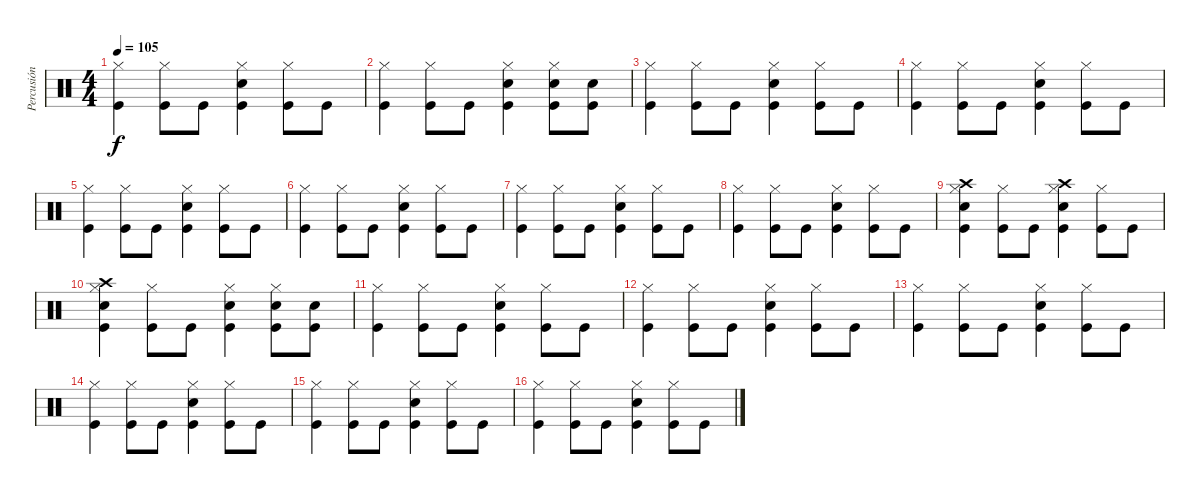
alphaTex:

\track ("Percusión" "Percusión") {instrument percussion}
\staff {score}
\articulation defaults
\ts (4 4)
\tempo 105
\clef neutral
\ks c
("Hi-Hat (closed)" "Kick (hit)").4{dy f} ("Hi-Hat (closed)" "Kick (hit)").8 "Kick (hit)".8 ("Hi-Hat (closed)" "Snare (hit) 2" "Kick (hit)").4 ("Hi-Hat (closed)" "Kick (hit)").8 "Kick (hit)".8 |
("Hi-Hat (closed)" "Kick (hit)").4 ("Hi-Hat (closed)" "Kick (hit)").8 "Kick (hit)".8 ("Hi-Hat (closed)" "Snare (hit) 2" "Kick (hit)").4 ("Hi-Hat (closed)" "Snare (hit) 2" "Kick (hit)").8 ("Snare (hit) 2" "Kick (hit)").8 |
("Hi-Hat (closed)" "Kick (hit)").4 ("Hi-Hat (closed)" "Kick (hit)").8 "Kick (hit)".8 ("Hi-Hat (closed)" "Snare (hit) 2" "Kick (hit)").4 ("Hi-Hat (closed)" "Kick (hit)").8 "Kick (hit)".8 |
("Hi-Hat (closed)" "Kick (hit)").4 ("Hi-Hat (closed)" "Kick (hit)").8 "Kick (hit)".8 ("Hi-Hat (closed)" "Snare (hit) 2" "Kick (hit)").4 ("Hi-Hat (closed)" "Kick (hit)").8 "Kick (hit)".8 |
("Hi-Hat (closed)" "Kick (hit)").4 ("Hi-Hat (closed)" "Kick (hit)").8 "Kick (hit)".8 ("Hi-Hat (closed)" "Snare (hit) 2" "Kick (hit)").4 ("Hi-Hat (closed)" "Kick (hit)").8 "Kick (hit)".8 |
("Hi-Hat (closed)" "Kick (hit)").4 ("Hi-Hat (closed)" "Kick (hit)").8 "Kick (hit)".8 ("Hi-Hat (closed)" "Snare (hit) 2" "Kick (hit)").4 ("Hi-Hat (closed)" "Kick (hit)").8 "Kick (hit)".8 |
("Hi-Hat (closed)" "Kick (hit)").4 ("Hi-Hat (closed)" "Kick (hit)").8 "Kick (hit)".8 ("Hi-Hat (closed)" "Snare (hit) 2" "Kick (hit)").4 ("Hi-Hat (closed)" "Kick (hit)").8 "Kick (hit)".8 |
("Hi-Hat (closed)" "Kick (hit)").4 ("Hi-Hat (closed)" "Kick (hit)").8 "Kick (hit)".8 ("Hi-Hat (closed)" "Snare (hit) 2" "Kick (hit)").4 ("Hi-Hat (closed)" "Kick (hit)").8 "Kick (hit)".8 |
("Hi-Hat (closed)" "Crash high (hit)" "Snare (hit) 2" "Kick (hit)").4 ("Hi-Hat (closed)" "Kick (hit)").8 "Kick (hit)".8 ("Hi-Hat (closed)" "Crash high (hit)" "Snare (hit) 2" "Kick (hit)").4 ("Hi-Hat (closed)" "Kick (hit)").8 "Kick (hit)".8 |
("Hi-Hat (closed)" "Crash high (hit)" "Snare (hit) 2" "Kick (hit)").4 ("Hi-Hat (closed)" "Kick (hit)").8 "Kick (hit)".8 ("Hi-Hat (closed)" "Snare (hit) 2" "Kick (hit)").4 ("Hi-Hat (closed)" "Snare (hit) 2" "Kick (hit)").8 ("Snare (hit) 2" "Kick (hit)").8 |
("Hi-Hat (closed)" "Kick (hit)").4 ("Hi-Hat (closed)" "Kick (hit)").8 "Kick (hit)".8 ("Hi-Hat (closed)" "Snare (hit) 2" "Kick (hit)").4 ("Hi-Hat (closed)" "Kick (hit)").8 "Kick (hit)".8 |
("Hi-Hat (closed)" "Kick (hit)").4 ("Hi-Hat (closed)" "Kick (hit)").8 "Kick (hit)".8 ("Hi-Hat (closed)" "Snare (hit) 2" "Kick (hit)").4 ("Hi-Hat (closed)" "Kick (hit)").8 "Kick (hit)".8 |
("Hi-Hat (closed)" "Kick (hit)").4 ("Hi-Hat (closed)" "Kick (hit)").8 "Kick (hit)".8 ("Hi-Hat (closed)" "Snare (hit) 2" "Kick (hit)").4 ("Hi-Hat (closed)" "Kick (hit)").8 "Kick (hit)".8 |
("Hi-Hat (closed)" "Kick (hit)").4 ("Hi-Hat (closed)" "Kick (hit)").8 "Kick (hit)".8 ("Hi-Hat (closed)" "Snare (hit) 2" "Kick (hit)").4 ("Hi-Hat (closed)" "Kick (hit)").8 "Kick (hit)".8 |
("Hi-Hat (closed)" "Kick (hit)").4 ("Hi-Hat (closed)" "Kick (hit)").8 "Kick (hit)".8 ("Hi-Hat (closed)" "Snare (hit) 2" "Kick (hit)").4 ("Hi-Hat (closed)" "Kick (hit)").8 "Kick (hit)".8 |
("Hi-Hat (closed)" "Kick (hit)").4 ("Hi-Hat (closed)" "Kick (hit)").8 "Kick (hit)".8 ("Hi-Hat (closed)" "Snare (hit) 2" "Kick (hit)").4 ("Hi-Hat (closed)" "Kick (hit)").8 "Kick (hit)".8
